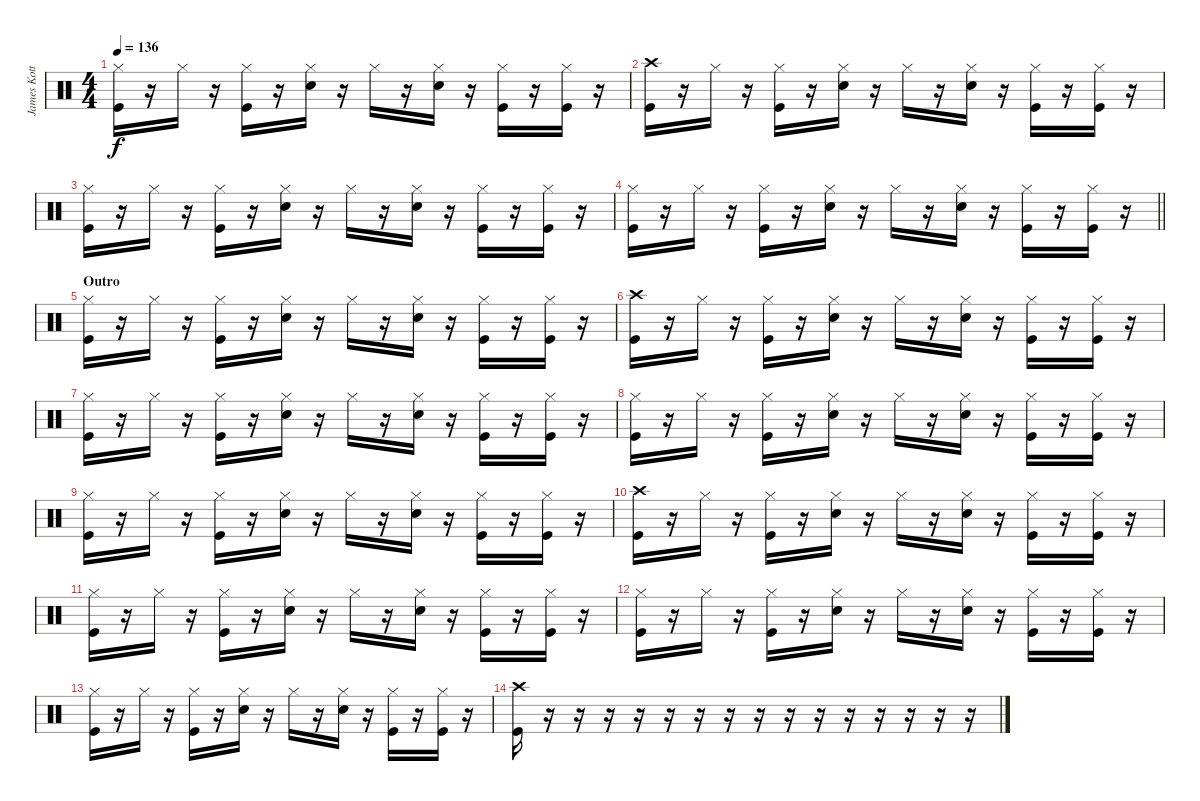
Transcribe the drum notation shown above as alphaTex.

\track ("James Kottak" "James Kott") {instrument percussion}
\staff {score}
\articulation defaults
\ts (4 4)
\tempo 136
\clef neutral
\ks c
("Hi-Hat (closed)" "Kick (hit)").16{dy f} r.16 "Hi-Hat (closed)".16 r.16 ("Hi-Hat (closed)" "Kick (hit)").16 r.16 ("Hi-Hat (closed)" "Snare (hit) 2").16 r.16 "Hi-Hat (closed)".16 r.16 ("Hi-Hat (closed)" "Snare (hit) 2").16 r.16 ("Hi-Hat (closed)" "Kick (hit)").16 r.16 ("Hi-Hat (closed)" "Kick (hit)").16 r.16 |
("Crash high (hit)" "Kick (hit)").16 r.16 "Hi-Hat (closed)".16 r.16 ("Hi-Hat (closed)" "Kick (hit)").16 r.16 ("Hi-Hat (closed)" "Snare (hit) 2").16 r.16 "Hi-Hat (closed)".16 r.16 ("Hi-Hat (closed)" "Snare (hit) 2").16 r.16 ("Hi-Hat (closed)" "Kick (hit)").16 r.16 ("Hi-Hat (closed)" "Kick (hit)").16 r.16 |
("Hi-Hat (closed)" "Kick (hit)").16 r.16 "Hi-Hat (closed)".16 r.16 ("Hi-Hat (closed)" "Kick (hit)").16 r.16 ("Hi-Hat (closed)" "Snare (hit) 2").16 r.16 "Hi-Hat (closed)".16 r.16 ("Hi-Hat (closed)" "Snare (hit) 2").16 r.16 ("Hi-Hat (closed)" "Kick (hit)").16 r.16 ("Hi-Hat (closed)" "Kick (hit)").16 r.16 |
\barLineRight lightlight
("Hi-Hat (closed)" "Kick (hit)").16 r.16 "Hi-Hat (closed)".16 r.16 ("Hi-Hat (closed)" "Kick (hit)").16 r.16 ("Hi-Hat (closed)" "Snare (hit) 2").16 r.16 "Hi-Hat (closed)".16 r.16 ("Hi-Hat (closed)" "Snare (hit) 2").16 r.16 ("Hi-Hat (closed)" "Kick (hit)").16 r.16 ("Hi-Hat (closed)" "Kick (hit)").16 r.16 |
\section ("" "Outro")
("Hi-Hat (closed)" "Kick (hit)").16 r.16 "Hi-Hat (closed)".16 r.16 ("Hi-Hat (closed)" "Kick (hit)").16 r.16 ("Hi-Hat (closed)" "Snare (hit) 2").16 r.16 "Hi-Hat (closed)".16 r.16 ("Hi-Hat (closed)" "Snare (hit) 2").16 r.16 ("Hi-Hat (closed)" "Kick (hit)").16 r.16 ("Hi-Hat (closed)" "Kick (hit)").16 r.16 |
("Crash high (hit)" "Kick (hit)").16 r.16 "Hi-Hat (closed)".16 r.16 ("Hi-Hat (closed)" "Kick (hit)").16 r.16 ("Hi-Hat (closed)" "Snare (hit) 2").16 r.16 "Hi-Hat (closed)".16 r.16 ("Hi-Hat (closed)" "Snare (hit) 2").16 r.16 ("Hi-Hat (closed)" "Kick (hit)").16 r.16 ("Hi-Hat (closed)" "Kick (hit)").16 r.16 |
("Hi-Hat (closed)" "Kick (hit)").16 r.16 "Hi-Hat (closed)".16 r.16 ("Hi-Hat (closed)" "Kick (hit)").16 r.16 ("Hi-Hat (closed)" "Snare (hit) 2").16 r.16 "Hi-Hat (closed)".16 r.16 ("Hi-Hat (closed)" "Snare (hit) 2").16 r.16 ("Hi-Hat (closed)" "Kick (hit)").16 r.16 ("Hi-Hat (closed)" "Kick (hit)").16 r.16 |
("Hi-Hat (closed)" "Kick (hit)").16 r.16 "Hi-Hat (closed)".16 r.16 ("Hi-Hat (closed)" "Kick (hit)").16 r.16 ("Hi-Hat (closed)" "Snare (hit) 2").16 r.16 "Hi-Hat (closed)".16 r.16 ("Hi-Hat (closed)" "Snare (hit) 2").16 r.16 ("Hi-Hat (closed)" "Kick (hit)").16 r.16 ("Hi-Hat (closed)" "Kick (hit)").16 r.16 |
("Hi-Hat (closed)" "Kick (hit)").16 r.16 "Hi-Hat (closed)".16 r.16 ("Hi-Hat (closed)" "Kick (hit)").16 r.16 ("Hi-Hat (closed)" "Snare (hit) 2").16 r.16 "Hi-Hat (closed)".16 r.16 ("Hi-Hat (closed)" "Snare (hit) 2").16 r.16 ("Hi-Hat (closed)" "Kick (hit)").16 r.16 ("Hi-Hat (closed)" "Kick (hit)").16 r.16 |
("Crash high (hit)" "Kick (hit)").16 r.16 "Hi-Hat (closed)".16 r.16 ("Hi-Hat (closed)" "Kick (hit)").16 r.16 ("Hi-Hat (closed)" "Snare (hit) 2").16 r.16 "Hi-Hat (closed)".16 r.16 ("Hi-Hat (closed)" "Snare (hit) 2").16 r.16 ("Hi-Hat (closed)" "Kick (hit)").16 r.16 ("Hi-Hat (closed)" "Kick (hit)").16 r.16 |
("Hi-Hat (closed)" "Kick (hit)").16 r.16 "Hi-Hat (closed)".16 r.16 ("Hi-Hat (closed)" "Kick (hit)").16 r.16 ("Hi-Hat (closed)" "Snare (hit) 2").16 r.16 "Hi-Hat (closed)".16 r.16 ("Hi-Hat (closed)" "Snare (hit) 2").16 r.16 ("Hi-Hat (closed)" "Kick (hit)").16 r.16 ("Hi-Hat (closed)" "Kick (hit)").16 r.16 |
("Hi-Hat (closed)" "Kick (hit)").16 r.16 "Hi-Hat (closed)".16 r.16 ("Hi-Hat (closed)" "Kick (hit)").16 r.16 ("Hi-Hat (closed)" "Snare (hit) 2").16 r.16 "Hi-Hat (closed)".16 r.16 ("Hi-Hat (closed)" "Snare (hit) 2").16 r.16 ("Hi-Hat (closed)" "Kick (hit)").16 r.16 ("Hi-Hat (closed)" "Kick (hit)").16 r.16 |
("Hi-Hat (closed)" "Kick (hit)").16 r.16 "Hi-Hat (closed)".16 r.16 ("Hi-Hat (closed)" "Kick (hit)").16 r.16 ("Hi-Hat (closed)" "Snare (hit) 2").16 r.16 "Hi-Hat (closed)".16 r.16 ("Hi-Hat (closed)" "Snare (hit) 2").16 r.16 ("Hi-Hat (closed)" "Kick (hit)").16 r.16 ("Hi-Hat (closed)" "Kick (hit)").16 r.16 |
("Crash high (hit)" "Kick (hit)").16 r.16 r.16 r.16 r.16 r.16 r.16 r.16 r.16 r.16 r.16 r.16 r.16 r.16 r.16 r.16
